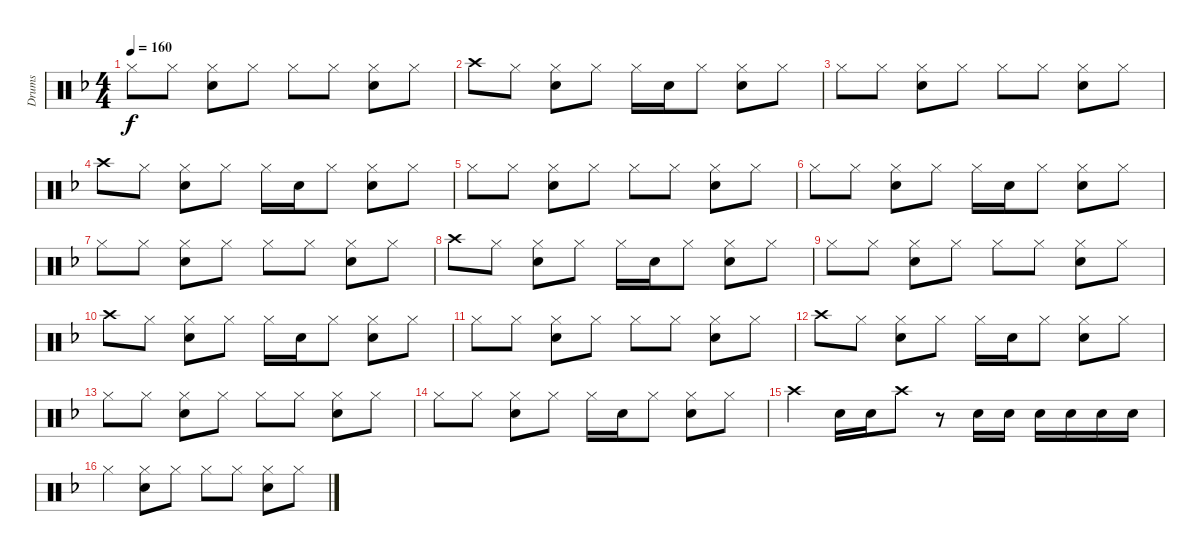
\track ("Drums" "Drums") {instrument percussion}
\staff {score}
\articulation defaults
\ts (4 4)
\tempo 160
\clef neutral
\ks f "Hi-Hat (closed)".8{dy f} "Hi-Hat (closed)".8
("Hi-Hat (closed)" "Snare (hit) 2").8 "Hi-Hat (closed)".8 "Hi-Hat (closed)".8 "Hi-Hat (closed)".8 ("Hi-Hat (closed)" "Snare (hit) 2").8 "Hi-Hat (closed)".8 |
"Crash high (hit)".8 "Hi-Hat (closed)".8 ("Hi-Hat (closed)" "Snare (hit) 2").8 "Hi-Hat (closed)".8 "Hi-Hat (closed)".16 "Snare (hit) 2".16 "Hi-Hat (closed)".8 ("Hi-Hat (closed)" "Snare (hit) 2").8 "Hi-Hat (closed)".8 |
"Hi-Hat (closed)".8 "Hi-Hat (closed)".8 ("Hi-Hat (closed)" "Snare (hit) 2").8 "Hi-Hat (closed)".8 "Hi-Hat (closed)".8 "Hi-Hat (closed)".8 ("Hi-Hat (closed)" "Snare (hit) 2").8 "Hi-Hat (closed)".8 |
"Crash high (hit)".8 "Hi-Hat (closed)".8 ("Hi-Hat (closed)" "Snare (hit) 2").8 "Hi-Hat (closed)".8 "Hi-Hat (closed)".16 "Snare (hit) 2".16 "Hi-Hat (closed)".8 ("Hi-Hat (closed)" "Snare (hit) 2").8 "Hi-Hat (closed)".8 |
"Hi-Hat (closed)".8 "Hi-Hat (closed)".8 ("Hi-Hat (closed)" "Snare (hit) 2").8 "Hi-Hat (closed)".8 "Hi-Hat (closed)".8 "Hi-Hat (closed)".8 ("Hi-Hat (closed)" "Snare (hit) 2").8 "Hi-Hat (closed)".8 |
"Hi-Hat (closed)".8 "Hi-Hat (closed)".8 ("Hi-Hat (closed)" "Snare (hit) 2").8 "Hi-Hat (closed)".8 "Hi-Hat (closed)".16 "Snare (hit) 2".16 "Hi-Hat (closed)".8 ("Hi-Hat (closed)" "Snare (hit) 2").8 "Hi-Hat (closed)".8 |
"Hi-Hat (closed)".8 "Hi-Hat (closed)".8 ("Hi-Hat (closed)" "Snare (hit) 2").8 "Hi-Hat (closed)".8 "Hi-Hat (closed)".8 "Hi-Hat (closed)".8 ("Hi-Hat (closed)" "Snare (hit) 2").8 "Hi-Hat (closed)".8 |
"Crash high (hit)".8 "Hi-Hat (closed)".8 ("Hi-Hat (closed)" "Snare (hit) 2").8 "Hi-Hat (closed)".8 "Hi-Hat (closed)".16 "Snare (hit) 2".16 "Hi-Hat (closed)".8 ("Hi-Hat (closed)" "Snare (hit) 2").8 "Hi-Hat (closed)".8 |
"Hi-Hat (closed)".8 "Hi-Hat (closed)".8 ("Hi-Hat (closed)" "Snare (hit) 2").8 "Hi-Hat (closed)".8 "Hi-Hat (closed)".8 "Hi-Hat (closed)".8 ("Hi-Hat (closed)" "Snare (hit) 2").8 "Hi-Hat (closed)".8 |
"Crash high (hit)".8 "Hi-Hat (closed)".8 ("Hi-Hat (closed)" "Snare (hit) 2").8 "Hi-Hat (closed)".8 "Hi-Hat (closed)".16 "Snare (hit) 2".16 "Hi-Hat (closed)".8 ("Hi-Hat (closed)" "Snare (hit) 2").8 "Hi-Hat (closed)".8 |
"Hi-Hat (closed)".8 "Hi-Hat (closed)".8 ("Hi-Hat (closed)" "Snare (hit) 2").8 "Hi-Hat (closed)".8 "Hi-Hat (closed)".8 "Hi-Hat (closed)".8 ("Hi-Hat (closed)" "Snare (hit) 2").8 "Hi-Hat (closed)".8 |
"Crash high (hit)".8 "Hi-Hat (closed)".8 ("Hi-Hat (closed)" "Snare (hit) 2").8 "Hi-Hat (closed)".8 "Hi-Hat (closed)".16 "Snare (hit) 2".16 "Hi-Hat (closed)".8 ("Hi-Hat (closed)" "Snare (hit) 2").8 "Hi-Hat (closed)".8 |
"Hi-Hat (closed)".8 "Hi-Hat (closed)".8 ("Hi-Hat (closed)" "Snare (hit) 2").8 "Hi-Hat (closed)".8 "Hi-Hat (closed)".8 "Hi-Hat (closed)".8 ("Hi-Hat (closed)" "Snare (hit) 2").8 "Hi-Hat (closed)".8 |
"Hi-Hat (closed)".8 "Hi-Hat (closed)".8 ("Hi-Hat (closed)" "Snare (hit) 2").8 "Hi-Hat (closed)".8 "Hi-Hat (closed)".16 "Snare (hit) 2".16 "Hi-Hat (closed)".8 ("Hi-Hat (closed)" "Snare (hit) 2").8 "Hi-Hat (closed)".8 |
"Crash high (hit)".4 "Snare (hit) 2".16 "Snare (hit) 2".16 "Crash high (hit)".8 r.8 "Snare (hit) 2".16 "Snare (hit) 2".16 "Snare (hit) 2".16 "Snare (hit) 2".16 "Snare (hit) 2".16 "Snare (hit) 2".16 |
"Hi-Hat (closed)".4 ("Hi-Hat (closed)" "Snare (hit) 2").8 "Hi-Hat (closed)".8 "Hi-Hat (closed)".8 "Hi-Hat (closed)".8 ("Hi-Hat (closed)" "Snare (hit) 2").8 "Hi-Hat (closed)".8
